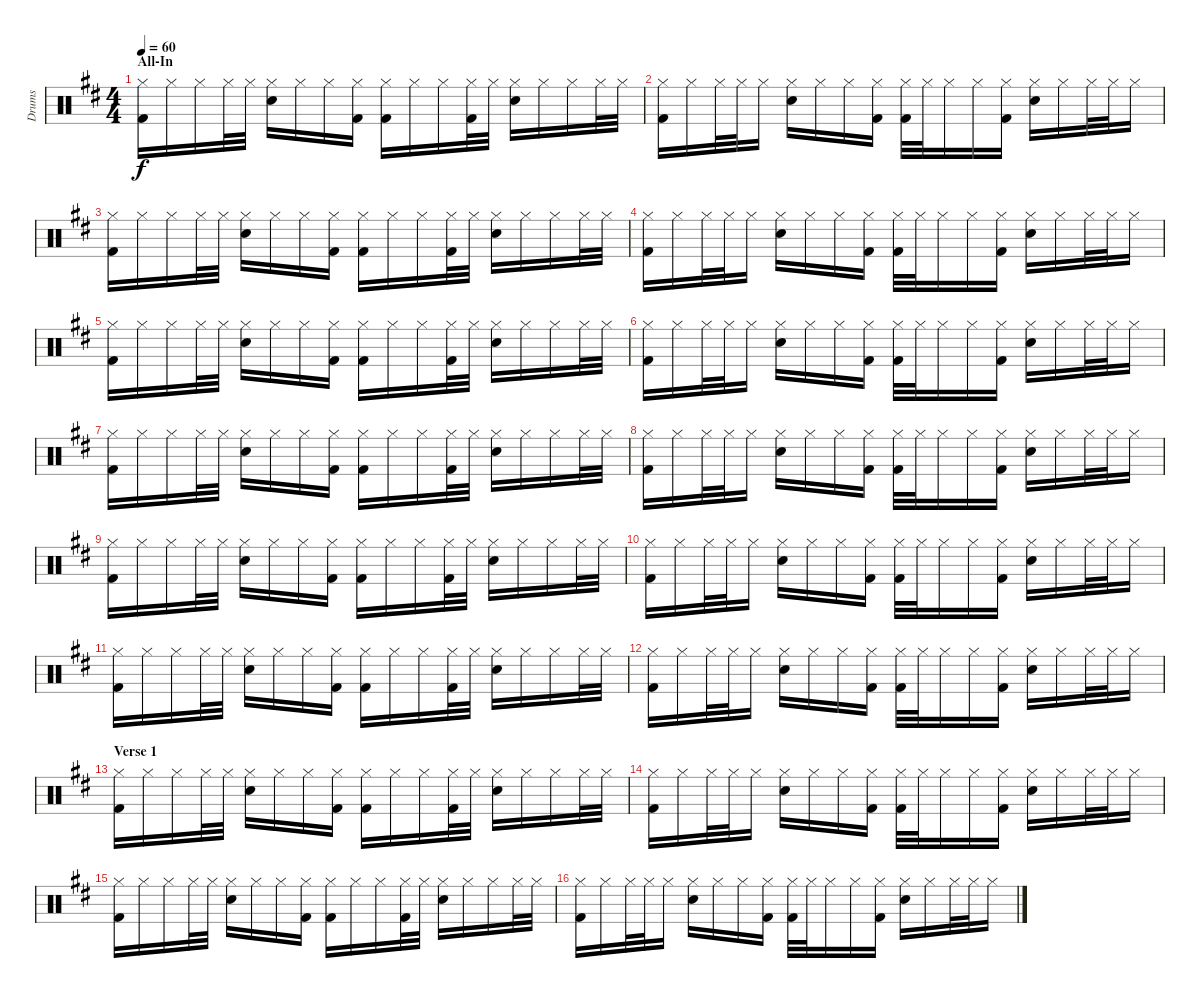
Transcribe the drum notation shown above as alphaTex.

\track ("Drums" "Drums") {instrument percussion}
\staff {score}
\articulation defaults
\ts (4 4)
\section ("" "All-In")
\tempo 60
\clef neutral
\ks bminor
("Hi-Hat (closed)" "Kick (hit) 2").16{dy f} "Hi-Hat (closed)".16 "Hi-Hat (closed)".16 "Hi-Hat (closed)".32 "Hi-Hat (closed)".32 ("Hi-Hat (closed)" "Snare (hit) 2").16 "Hi-Hat (closed)".16 "Hi-Hat (closed)".16 ("Hi-Hat (closed)" "Kick (hit) 2").16 ("Hi-Hat (closed)" "Kick (hit) 2").16 "Hi-Hat (closed)".16 "Hi-Hat (closed)".16 ("Hi-Hat (closed)" "Kick (hit) 2").32 "Hi-Hat (closed)".32 ("Hi-Hat (closed)" "Snare (hit) 2").16 "Hi-Hat (closed)".16 "Hi-Hat (closed)".16 "Hi-Hat (closed)".32 "Hi-Hat (closed)".32 |
("Hi-Hat (closed)" "Kick (hit) 2").16 "Hi-Hat (closed)".16 "Hi-Hat (closed)".32 "Hi-Hat (closed)".32 "Hi-Hat (closed)".16 ("Hi-Hat (closed)" "Snare (hit) 2").16 "Hi-Hat (closed)".16 "Hi-Hat (closed)".16 ("Hi-Hat (closed)" "Kick (hit) 2").16 ("Hi-Hat (closed)" "Kick (hit) 2").32 "Hi-Hat (closed)".32 "Hi-Hat (closed)".16 "Hi-Hat (closed)".16 ("Hi-Hat (closed)" "Kick (hit) 2").16 ("Hi-Hat (closed)" "Snare (hit) 2").16 "Hi-Hat (closed)".16 "Hi-Hat (closed)".32 "Hi-Hat (closed)".32 "Hi-Hat (closed)".16 |
("Hi-Hat (closed)" "Kick (hit) 2").16 "Hi-Hat (closed)".16 "Hi-Hat (closed)".16 "Hi-Hat (closed)".32 "Hi-Hat (closed)".32 ("Hi-Hat (closed)" "Snare (hit) 2").16 "Hi-Hat (closed)".16 "Hi-Hat (closed)".16 ("Hi-Hat (closed)" "Kick (hit) 2").16 ("Hi-Hat (closed)" "Kick (hit) 2").16 "Hi-Hat (closed)".16 "Hi-Hat (closed)".16 ("Hi-Hat (closed)" "Kick (hit) 2").32 "Hi-Hat (closed)".32 ("Hi-Hat (closed)" "Snare (hit) 2").16 "Hi-Hat (closed)".16 "Hi-Hat (closed)".16 "Hi-Hat (closed)".32 "Hi-Hat (closed)".32 |
("Hi-Hat (closed)" "Kick (hit) 2").16 "Hi-Hat (closed)".16 "Hi-Hat (closed)".32 "Hi-Hat (closed)".32 "Hi-Hat (closed)".16 ("Hi-Hat (closed)" "Snare (hit) 2").16 "Hi-Hat (closed)".16 "Hi-Hat (closed)".16 ("Hi-Hat (closed)" "Kick (hit) 2").16 ("Hi-Hat (closed)" "Kick (hit) 2").32 "Hi-Hat (closed)".32 "Hi-Hat (closed)".16 "Hi-Hat (closed)".16 ("Hi-Hat (closed)" "Kick (hit) 2").16 ("Hi-Hat (closed)" "Snare (hit) 2").16 "Hi-Hat (closed)".16 "Hi-Hat (closed)".32 "Hi-Hat (closed)".32 "Hi-Hat (closed)".16 |
("Hi-Hat (closed)" "Kick (hit) 2").16 "Hi-Hat (closed)".16 "Hi-Hat (closed)".16 "Hi-Hat (closed)".32 "Hi-Hat (closed)".32 ("Hi-Hat (closed)" "Snare (hit) 2").16 "Hi-Hat (closed)".16 "Hi-Hat (closed)".16 ("Hi-Hat (closed)" "Kick (hit) 2").16 ("Hi-Hat (closed)" "Kick (hit) 2").16 "Hi-Hat (closed)".16 "Hi-Hat (closed)".16 ("Hi-Hat (closed)" "Kick (hit) 2").32 "Hi-Hat (closed)".32 ("Hi-Hat (closed)" "Snare (hit) 2").16 "Hi-Hat (closed)".16 "Hi-Hat (closed)".16 "Hi-Hat (closed)".32 "Hi-Hat (closed)".32 |
("Hi-Hat (closed)" "Kick (hit) 2").16 "Hi-Hat (closed)".16 "Hi-Hat (closed)".32 "Hi-Hat (closed)".32 "Hi-Hat (closed)".16 ("Hi-Hat (closed)" "Snare (hit) 2").16 "Hi-Hat (closed)".16 "Hi-Hat (closed)".16 ("Hi-Hat (closed)" "Kick (hit) 2").16 ("Hi-Hat (closed)" "Kick (hit) 2").32 "Hi-Hat (closed)".32 "Hi-Hat (closed)".16 "Hi-Hat (closed)".16 ("Hi-Hat (closed)" "Kick (hit) 2").16 ("Hi-Hat (closed)" "Snare (hit) 2").16 "Hi-Hat (closed)".16 "Hi-Hat (closed)".32 "Hi-Hat (closed)".32 "Hi-Hat (closed)".16 |
("Hi-Hat (closed)" "Kick (hit) 2").16 "Hi-Hat (closed)".16 "Hi-Hat (closed)".16 "Hi-Hat (closed)".32 "Hi-Hat (closed)".32 ("Hi-Hat (closed)" "Snare (hit) 2").16 "Hi-Hat (closed)".16 "Hi-Hat (closed)".16 ("Hi-Hat (closed)" "Kick (hit) 2").16 ("Hi-Hat (closed)" "Kick (hit) 2").16 "Hi-Hat (closed)".16 "Hi-Hat (closed)".16 ("Hi-Hat (closed)" "Kick (hit) 2").32 "Hi-Hat (closed)".32 ("Hi-Hat (closed)" "Snare (hit) 2").16 "Hi-Hat (closed)".16 "Hi-Hat (closed)".16 "Hi-Hat (closed)".32 "Hi-Hat (closed)".32 |
("Hi-Hat (closed)" "Kick (hit) 2").16 "Hi-Hat (closed)".16 "Hi-Hat (closed)".32 "Hi-Hat (closed)".32 "Hi-Hat (closed)".16 ("Hi-Hat (closed)" "Snare (hit) 2").16 "Hi-Hat (closed)".16 "Hi-Hat (closed)".16 ("Hi-Hat (closed)" "Kick (hit) 2").16 ("Hi-Hat (closed)" "Kick (hit) 2").32 "Hi-Hat (closed)".32 "Hi-Hat (closed)".16 "Hi-Hat (closed)".16 ("Hi-Hat (closed)" "Kick (hit) 2").16 ("Hi-Hat (closed)" "Snare (hit) 2").16 "Hi-Hat (closed)".16 "Hi-Hat (closed)".32 "Hi-Hat (closed)".32 "Hi-Hat (closed)".16 |
("Hi-Hat (closed)" "Kick (hit) 2").16 "Hi-Hat (closed)".16 "Hi-Hat (closed)".16 "Hi-Hat (closed)".32 "Hi-Hat (closed)".32 ("Hi-Hat (closed)" "Snare (hit) 2").16 "Hi-Hat (closed)".16 "Hi-Hat (closed)".16 ("Hi-Hat (closed)" "Kick (hit) 2").16 ("Hi-Hat (closed)" "Kick (hit) 2").16 "Hi-Hat (closed)".16 "Hi-Hat (closed)".16 ("Hi-Hat (closed)" "Kick (hit) 2").32 "Hi-Hat (closed)".32 ("Hi-Hat (closed)" "Snare (hit) 2").16 "Hi-Hat (closed)".16 "Hi-Hat (closed)".16 "Hi-Hat (closed)".32 "Hi-Hat (closed)".32 |
("Hi-Hat (closed)" "Kick (hit) 2").16 "Hi-Hat (closed)".16 "Hi-Hat (closed)".32 "Hi-Hat (closed)".32 "Hi-Hat (closed)".16 ("Hi-Hat (closed)" "Snare (hit) 2").16 "Hi-Hat (closed)".16 "Hi-Hat (closed)".16 ("Hi-Hat (closed)" "Kick (hit) 2").16 ("Hi-Hat (closed)" "Kick (hit) 2").32 "Hi-Hat (closed)".32 "Hi-Hat (closed)".16 "Hi-Hat (closed)".16 ("Hi-Hat (closed)" "Kick (hit) 2").16 ("Hi-Hat (closed)" "Snare (hit) 2").16 "Hi-Hat (closed)".16 "Hi-Hat (closed)".32 "Hi-Hat (closed)".32 "Hi-Hat (closed)".16 |
("Hi-Hat (closed)" "Kick (hit) 2").16 "Hi-Hat (closed)".16 "Hi-Hat (closed)".16 "Hi-Hat (closed)".32 "Hi-Hat (closed)".32 ("Hi-Hat (closed)" "Snare (hit) 2").16 "Hi-Hat (closed)".16 "Hi-Hat (closed)".16 ("Hi-Hat (closed)" "Kick (hit) 2").16 ("Hi-Hat (closed)" "Kick (hit) 2").16 "Hi-Hat (closed)".16 "Hi-Hat (closed)".16 ("Hi-Hat (closed)" "Kick (hit) 2").32 "Hi-Hat (closed)".32 ("Hi-Hat (closed)" "Snare (hit) 2").16 "Hi-Hat (closed)".16 "Hi-Hat (closed)".16 "Hi-Hat (closed)".32 "Hi-Hat (closed)".32 |
("Hi-Hat (closed)" "Kick (hit) 2").16 "Hi-Hat (closed)".16 "Hi-Hat (closed)".32 "Hi-Hat (closed)".32 "Hi-Hat (closed)".16 ("Hi-Hat (closed)" "Snare (hit) 2").16 "Hi-Hat (closed)".16 "Hi-Hat (closed)".16 ("Hi-Hat (closed)" "Kick (hit) 2").16 ("Hi-Hat (closed)" "Kick (hit) 2").32 "Hi-Hat (closed)".32 "Hi-Hat (closed)".16 "Hi-Hat (closed)".16 ("Hi-Hat (closed)" "Kick (hit) 2").16 ("Hi-Hat (closed)" "Snare (hit) 2").16 "Hi-Hat (closed)".16 "Hi-Hat (closed)".32 "Hi-Hat (closed)".32 "Hi-Hat (closed)".16 |
\section ("" "Verse 1")
("Hi-Hat (closed)" "Kick (hit) 2").16 "Hi-Hat (closed)".16 "Hi-Hat (closed)".16 "Hi-Hat (closed)".32 "Hi-Hat (closed)".32 ("Hi-Hat (closed)" "Snare (hit) 2").16 "Hi-Hat (closed)".16 "Hi-Hat (closed)".16 ("Hi-Hat (closed)" "Kick (hit) 2").16 ("Hi-Hat (closed)" "Kick (hit) 2").16 "Hi-Hat (closed)".16 "Hi-Hat (closed)".16 ("Hi-Hat (closed)" "Kick (hit) 2").32 "Hi-Hat (closed)".32 ("Hi-Hat (closed)" "Snare (hit) 2").16 "Hi-Hat (closed)".16 "Hi-Hat (closed)".16 "Hi-Hat (closed)".32 "Hi-Hat (closed)".32 |
("Hi-Hat (closed)" "Kick (hit) 2").16 "Hi-Hat (closed)".16 "Hi-Hat (closed)".32 "Hi-Hat (closed)".32 "Hi-Hat (closed)".16 ("Hi-Hat (closed)" "Snare (hit) 2").16 "Hi-Hat (closed)".16 "Hi-Hat (closed)".16 ("Hi-Hat (closed)" "Kick (hit) 2").16 ("Hi-Hat (closed)" "Kick (hit) 2").32 "Hi-Hat (closed)".32 "Hi-Hat (closed)".16 "Hi-Hat (closed)".16 ("Hi-Hat (closed)" "Kick (hit) 2").16 ("Hi-Hat (closed)" "Snare (hit) 2").16 "Hi-Hat (closed)".16 "Hi-Hat (closed)".32 "Hi-Hat (closed)".32 "Hi-Hat (closed)".16 |
("Hi-Hat (closed)" "Kick (hit) 2").16 "Hi-Hat (closed)".16 "Hi-Hat (closed)".16 "Hi-Hat (closed)".32 "Hi-Hat (closed)".32 ("Hi-Hat (closed)" "Snare (hit) 2").16 "Hi-Hat (closed)".16 "Hi-Hat (closed)".16 ("Hi-Hat (closed)" "Kick (hit) 2").16 ("Hi-Hat (closed)" "Kick (hit) 2").16 "Hi-Hat (closed)".16 "Hi-Hat (closed)".16 ("Hi-Hat (closed)" "Kick (hit) 2").32 "Hi-Hat (closed)".32 ("Hi-Hat (closed)" "Snare (hit) 2").16 "Hi-Hat (closed)".16 "Hi-Hat (closed)".16 "Hi-Hat (closed)".32 "Hi-Hat (closed)".32 |
("Hi-Hat (closed)" "Kick (hit) 2").16 "Hi-Hat (closed)".16 "Hi-Hat (closed)".32 "Hi-Hat (closed)".32 "Hi-Hat (closed)".16 ("Hi-Hat (closed)" "Snare (hit) 2").16 "Hi-Hat (closed)".16 "Hi-Hat (closed)".16 ("Hi-Hat (closed)" "Kick (hit) 2").16 ("Hi-Hat (closed)" "Kick (hit) 2").32 "Hi-Hat (closed)".32 "Hi-Hat (closed)".16 "Hi-Hat (closed)".16 ("Hi-Hat (closed)" "Kick (hit) 2").16 ("Hi-Hat (closed)" "Snare (hit) 2").16 "Hi-Hat (closed)".16 "Hi-Hat (closed)".32 "Hi-Hat (closed)".32 "Hi-Hat (closed)".16
